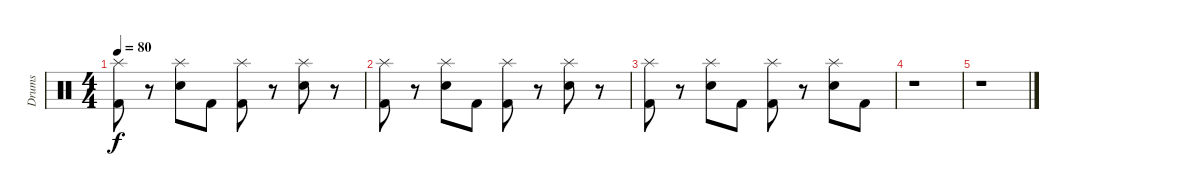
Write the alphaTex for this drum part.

\track ("Drums" "Drums") {instrument percussion}
\staff {score}
\articulation defaults
\ts (4 4)
\tempo 80
\clef neutral
\ks c
("Splash (hit)" "Kick (hit) 2").8{dy f} r.8 ("Splash (hit)" "Electric Snare (hit)").8 "Kick (hit) 2".8 ("Splash (hit)" "Kick (hit) 2").8 r.8 ("Splash (hit)" "Electric Snare (hit)").8 r.8 |
("Splash (hit)" "Kick (hit) 2").8 r.8 ("Splash (hit)" "Electric Snare (hit)").8 "Kick (hit) 2".8 ("Splash (hit)" "Kick (hit) 2").8 r.8 ("Splash (hit)" "Electric Snare (hit)").8 r.8 |
("Splash (hit)" "Kick (hit) 2").8 r.8 ("Splash (hit)" "Electric Snare (hit)").8 "Kick (hit) 2".8 ("Splash (hit)" "Kick (hit) 2").8 r.8 ("Splash (hit)" "Electric Snare (hit)").8 "Kick (hit) 2".8 |
r.1 |
r.1
